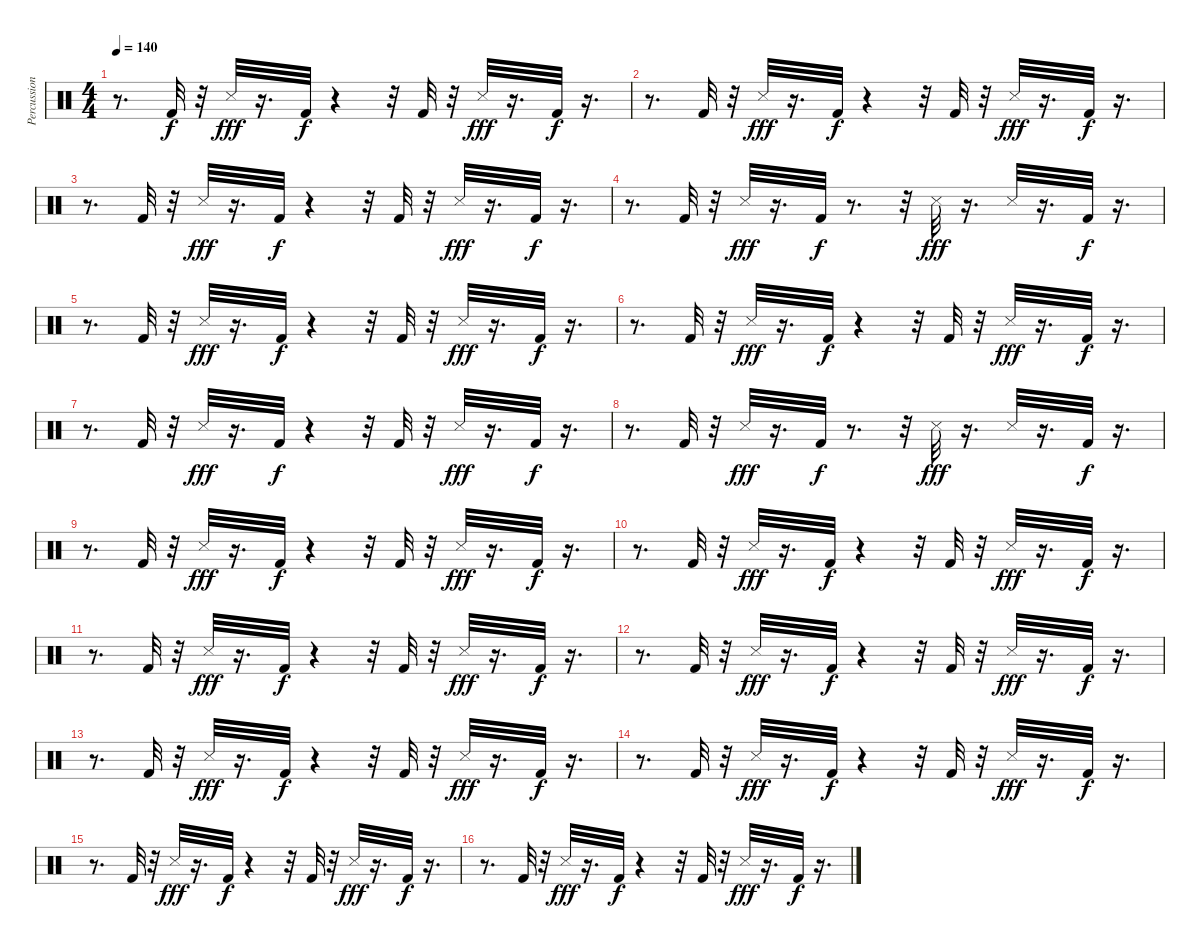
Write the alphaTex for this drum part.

\track ("Percussion" "Percussion") {instrument percussion}
\staff {score}
\articulation defaults
\ts (4 4)
\tempo 140
\clef neutral
\ks c
r.8{d dy f} "Kick (hit) 2".32 r.32 "Snare (side stick) 3".32{dy fff} r.16{d} "Kick (hit) 2".32{dy f} r.4 r.32 "Kick (hit) 2".32 r.32 "Snare (side stick) 3".32{dy fff} r.16{d} "Kick (hit) 2".32{dy f} r.16{d} |
r.8{d} "Kick (hit) 2".32 r.32 "Snare (side stick) 3".32{dy fff} r.16{d} "Kick (hit) 2".32{dy f} r.4 r.32 "Kick (hit) 2".32 r.32 "Snare (side stick) 3".32{dy fff} r.16{d} "Kick (hit) 2".32{dy f} r.16{d} |
r.8{d} "Kick (hit) 2".32 r.32 "Snare (side stick) 3".32{dy fff} r.16{d} "Kick (hit) 2".32{dy f} r.4 r.32 "Kick (hit) 2".32 r.32 "Snare (side stick) 3".32{dy fff} r.16{d} "Kick (hit) 2".32{dy f} r.16{d} |
r.8{d} "Kick (hit) 2".32 r.32 "Snare (side stick) 3".32{dy fff} r.16{d} "Kick (hit) 2".32{dy f} r.8{d} r.32 "Snare (side stick) 3".32{dy fff} r.16{d} "Snare (side stick) 3".32 r.16{d} "Kick (hit) 2".32{dy f} r.16{d} |
r.8{d} "Kick (hit) 2".32 r.32 "Snare (side stick) 3".32{dy fff} r.16{d} "Kick (hit) 2".32{dy f} r.4 r.32 "Kick (hit) 2".32 r.32 "Snare (side stick) 3".32{dy fff} r.16{d} "Kick (hit) 2".32{dy f} r.16{d} |
r.8{d} "Kick (hit) 2".32 r.32 "Snare (side stick) 3".32{dy fff} r.16{d} "Kick (hit) 2".32{dy f} r.4 r.32 "Kick (hit) 2".32 r.32 "Snare (side stick) 3".32{dy fff} r.16{d} "Kick (hit) 2".32{dy f} r.16{d} |
r.8{d} "Kick (hit) 2".32 r.32 "Snare (side stick) 3".32{dy fff} r.16{d} "Kick (hit) 2".32{dy f} r.4 r.32 "Kick (hit) 2".32 r.32 "Snare (side stick) 3".32{dy fff} r.16{d} "Kick (hit) 2".32{dy f} r.16{d} |
r.8{d} "Kick (hit) 2".32 r.32 "Snare (side stick) 3".32{dy fff} r.16{d} "Kick (hit) 2".32{dy f} r.8{d} r.32 "Snare (side stick) 3".32{dy fff} r.16{d} "Snare (side stick) 3".32 r.16{d} "Kick (hit) 2".32{dy f} r.16{d} |
r.8{d} "Kick (hit) 2".32 r.32 "Snare (side stick) 3".32{dy fff} r.16{d} "Kick (hit) 2".32{dy f} r.4 r.32 "Kick (hit) 2".32 r.32 "Snare (side stick) 3".32{dy fff} r.16{d} "Kick (hit) 2".32{dy f} r.16{d} |
r.8{d} "Kick (hit) 2".32 r.32 "Snare (side stick) 3".32{dy fff} r.16{d} "Kick (hit) 2".32{dy f} r.4 r.32 "Kick (hit) 2".32 r.32 "Snare (side stick) 3".32{dy fff} r.16{d} "Kick (hit) 2".32{dy f} r.16{d} |
r.8{d} "Kick (hit) 2".32 r.32 "Snare (side stick) 3".32{dy fff} r.16{d} "Kick (hit) 2".32{dy f} r.4 r.32 "Kick (hit) 2".32 r.32 "Snare (side stick) 3".32{dy fff} r.16{d} "Kick (hit) 2".32{dy f} r.16{d} |
r.8{d} "Kick (hit) 2".32 r.32 "Snare (side stick) 3".32{dy fff} r.16{d} "Kick (hit) 2".32{dy f} r.4 r.32 "Kick (hit) 2".32 r.32 "Snare (side stick) 3".32{dy fff} r.16{d} "Kick (hit) 2".32{dy f} r.16{d} |
r.8{d} "Kick (hit) 2".32 r.32 "Snare (side stick) 3".32{dy fff} r.16{d} "Kick (hit) 2".32{dy f} r.4 r.32 "Kick (hit) 2".32 r.32 "Snare (side stick) 3".32{dy fff} r.16{d} "Kick (hit) 2".32{dy f} r.16{d} |
r.8{d} "Kick (hit) 2".32 r.32 "Snare (side stick) 3".32{dy fff} r.16{d} "Kick (hit) 2".32{dy f} r.4 r.32 "Kick (hit) 2".32 r.32 "Snare (side stick) 3".32{dy fff} r.16{d} "Kick (hit) 2".32{dy f} r.16{d} |
r.8{d} "Kick (hit) 2".32 r.32 "Snare (side stick) 3".32{dy fff} r.16{d} "Kick (hit) 2".32{dy f} r.4 r.32 "Kick (hit) 2".32 r.32 "Snare (side stick) 3".32{dy fff} r.16{d} "Kick (hit) 2".32{dy f} r.16{d} |
r.8{d} "Kick (hit) 2".32 r.32 "Snare (side stick) 3".32{dy fff} r.16{d} "Kick (hit) 2".32{dy f} r.4 r.32 "Kick (hit) 2".32 r.32 "Snare (side stick) 3".32{dy fff} r.16{d} "Kick (hit) 2".32{dy f} r.16{d}
